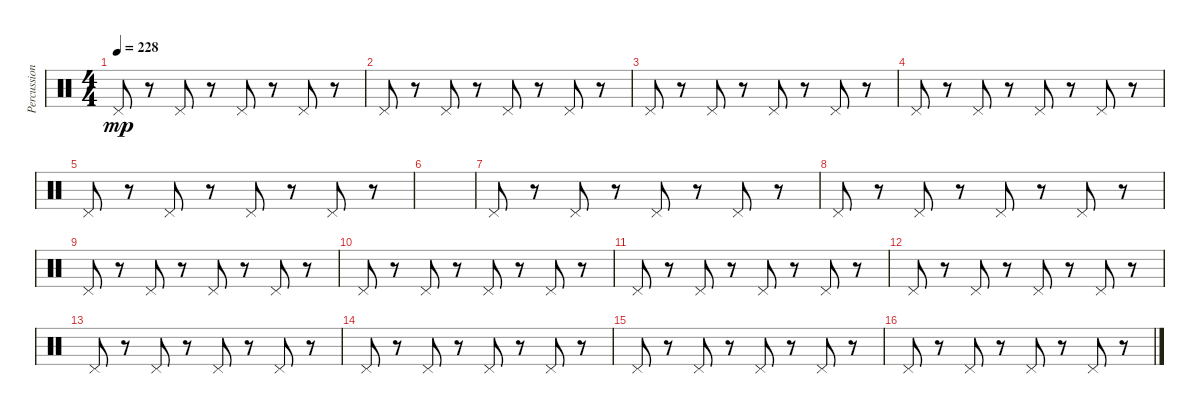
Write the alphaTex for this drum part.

\track ("Percussions" "Percussion") {instrument percussion}
\staff {score}
\articulation defaults
\ts (4 4)
\tempo 228
\clef neutral
\ks c "Pedal Hi-Hat (hit)".8{dy mp}
r.8 "Pedal Hi-Hat (hit)".8 r.8 "Pedal Hi-Hat (hit)".8 r.8 "Pedal Hi-Hat (hit)".8 r.8 |
"Pedal Hi-Hat (hit)".8 r.8 "Pedal Hi-Hat (hit)".8 r.8 "Pedal Hi-Hat (hit)".8 r.8 "Pedal Hi-Hat (hit)".8 r.8 |
"Pedal Hi-Hat (hit)".8 r.8 "Pedal Hi-Hat (hit)".8 r.8 "Pedal Hi-Hat (hit)".8 r.8 "Pedal Hi-Hat (hit)".8 r.8 |
"Pedal Hi-Hat (hit)".8 r.8 "Pedal Hi-Hat (hit)".8 r.8 "Pedal Hi-Hat (hit)".8 r.8 "Pedal Hi-Hat (hit)".8 r.8 |
"Pedal Hi-Hat (hit)".8 r.8 "Pedal Hi-Hat (hit)".8 r.8 "Pedal Hi-Hat (hit)".8 r.8 "Pedal Hi-Hat (hit)".8 r.8 |
|
"Pedal Hi-Hat (hit)".8 r.8 "Pedal Hi-Hat (hit)".8 r.8 "Pedal Hi-Hat (hit)".8 r.8 "Pedal Hi-Hat (hit)".8 r.8 |
"Pedal Hi-Hat (hit)".8 r.8 "Pedal Hi-Hat (hit)".8 r.8 "Pedal Hi-Hat (hit)".8 r.8 "Pedal Hi-Hat (hit)".8 r.8 |
"Pedal Hi-Hat (hit)".8 r.8 "Pedal Hi-Hat (hit)".8 r.8 "Pedal Hi-Hat (hit)".8 r.8 "Pedal Hi-Hat (hit)".8 r.8 |
"Pedal Hi-Hat (hit)".8 r.8 "Pedal Hi-Hat (hit)".8 r.8 "Pedal Hi-Hat (hit)".8 r.8 "Pedal Hi-Hat (hit)".8 r.8 |
"Pedal Hi-Hat (hit)".8 r.8 "Pedal Hi-Hat (hit)".8 r.8 "Pedal Hi-Hat (hit)".8 r.8 "Pedal Hi-Hat (hit)".8 r.8 |
"Pedal Hi-Hat (hit)".8 r.8 "Pedal Hi-Hat (hit)".8 r.8 "Pedal Hi-Hat (hit)".8 r.8 "Pedal Hi-Hat (hit)".8 r.8 |
"Pedal Hi-Hat (hit)".8 r.8 "Pedal Hi-Hat (hit)".8 r.8 "Pedal Hi-Hat (hit)".8 r.8 "Pedal Hi-Hat (hit)".8 r.8 |
"Pedal Hi-Hat (hit)".8 r.8 "Pedal Hi-Hat (hit)".8 r.8 "Pedal Hi-Hat (hit)".8 r.8 "Pedal Hi-Hat (hit)".8 r.8 |
"Pedal Hi-Hat (hit)".8 r.8 "Pedal Hi-Hat (hit)".8 r.8 "Pedal Hi-Hat (hit)".8 r.8 "Pedal Hi-Hat (hit)".8 r.8 |
"Pedal Hi-Hat (hit)".8 r.8 "Pedal Hi-Hat (hit)".8 r.8 "Pedal Hi-Hat (hit)".8 r.8 "Pedal Hi-Hat (hit)".8 r.8
